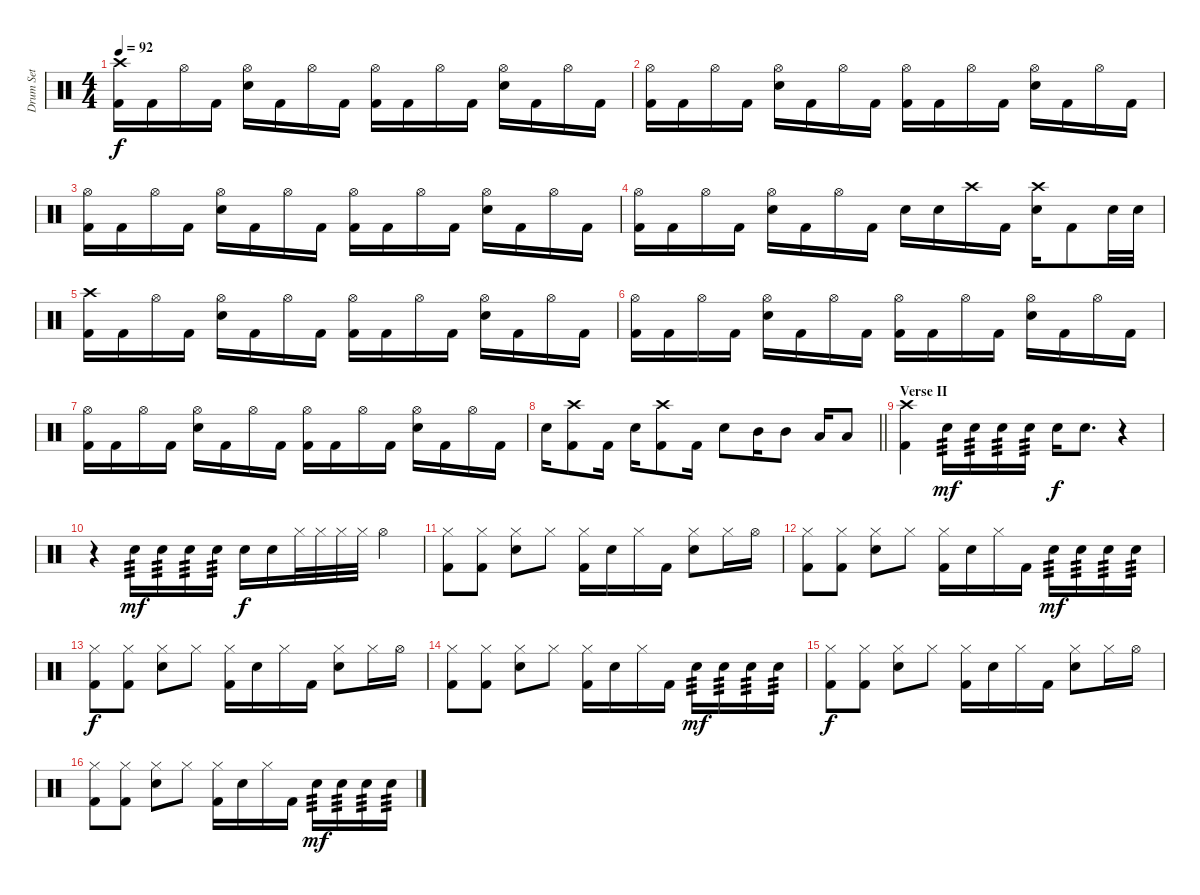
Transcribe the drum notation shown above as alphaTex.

\track ("Drum Set" "Drum Set") {instrument percussion}
\staff {score}
\articulation defaults
\ts (4 4)
\tempo 92
\clef neutral
\ks c
("Crash high (hit)" "Kick (hit) 2").16{dy f} "Kick (hit) 2".16 "Hi-Hat (open)".16 "Kick (hit) 2".16 ("Hi-Hat (open)" "Electric Snare (hit)").16 "Kick (hit) 2".16 "Hi-Hat (open)".16 "Kick (hit) 2".16 ("Hi-Hat (open)" "Kick (hit) 2").16 "Kick (hit) 2".16 "Hi-Hat (open)".16 "Kick (hit) 2".16 ("Hi-Hat (open)" "Electric Snare (hit)").16 "Kick (hit) 2".16 "Hi-Hat (open)".16 "Kick (hit) 2".16 |
("Hi-Hat (open)" "Kick (hit) 2").16 "Kick (hit) 2".16 "Hi-Hat (open)".16 "Kick (hit) 2".16 ("Hi-Hat (open)" "Electric Snare (hit)").16 "Kick (hit) 2".16 "Hi-Hat (open)".16 "Kick (hit) 2".16 ("Hi-Hat (open)" "Kick (hit) 2").16 "Kick (hit) 2".16 "Hi-Hat (open)".16 "Kick (hit) 2".16 ("Hi-Hat (open)" "Electric Snare (hit)").16 "Kick (hit) 2".16 "Hi-Hat (open)".16 "Kick (hit) 2".16 |
("Hi-Hat (open)" "Kick (hit) 2").16 "Kick (hit) 2".16 "Hi-Hat (open)".16 "Kick (hit) 2".16 ("Hi-Hat (open)" "Electric Snare (hit)").16 "Kick (hit) 2".16 "Hi-Hat (open)".16 "Kick (hit) 2".16 ("Hi-Hat (open)" "Kick (hit) 2").16 "Kick (hit) 2".16 "Hi-Hat (open)".16 "Kick (hit) 2".16 ("Hi-Hat (open)" "Electric Snare (hit)").16 "Kick (hit) 2".16 "Hi-Hat (open)".16 "Kick (hit) 2".16 |
("Hi-Hat (open)" "Kick (hit) 2").16 "Kick (hit) 2".16 "Hi-Hat (open)".16 "Kick (hit) 2".16 ("Hi-Hat (open)" "Electric Snare (hit)").16 "Kick (hit) 2".16 "Hi-Hat (open)".16 "Kick (hit) 2".16 "Electric Snare (hit)".16 "Electric Snare (hit)".16 "Crash high (hit)".16 "Kick (hit) 2".16 ("Electric Snare (hit)" "Crash high (hit)").16 "Kick (hit) 2".8 "Electric Snare (hit)".32 "Electric Snare (hit)".32 |
("Crash high (hit)" "Kick (hit) 2").16 "Kick (hit) 2".16 "Hi-Hat (open)".16 "Kick (hit) 2".16 ("Hi-Hat (open)" "Electric Snare (hit)").16 "Kick (hit) 2".16 "Hi-Hat (open)".16 "Kick (hit) 2".16 ("Hi-Hat (open)" "Kick (hit) 2").16 "Kick (hit) 2".16 "Hi-Hat (open)".16 "Kick (hit) 2".16 ("Hi-Hat (open)" "Electric Snare (hit)").16 "Kick (hit) 2".16 "Hi-Hat (open)".16 "Kick (hit) 2".16 |
("Hi-Hat (open)" "Kick (hit) 2").16 "Kick (hit) 2".16 "Hi-Hat (open)".16 "Kick (hit) 2".16 ("Hi-Hat (open)" "Electric Snare (hit)").16 "Kick (hit) 2".16 "Hi-Hat (open)".16 "Kick (hit) 2".16 ("Hi-Hat (open)" "Kick (hit) 2").16 "Kick (hit) 2".16 "Hi-Hat (open)".16 "Kick (hit) 2".16 ("Hi-Hat (open)" "Electric Snare (hit)").16 "Kick (hit) 2".16 "Hi-Hat (open)".16 "Kick (hit) 2".16 |
("Hi-Hat (open)" "Kick (hit) 2").16 "Kick (hit) 2".16 "Hi-Hat (open)".16 "Kick (hit) 2".16 ("Hi-Hat (open)" "Electric Snare (hit)").16 "Kick (hit) 2".16 "Hi-Hat (open)".16 "Kick (hit) 2".16 ("Hi-Hat (open)" "Kick (hit) 2").16 "Kick (hit) 2".16 "Hi-Hat (open)".16 "Kick (hit) 2".16 ("Hi-Hat (open)" "Electric Snare (hit)").16 "Kick (hit) 2".16 "Hi-Hat (open)".16 "Kick (hit) 2".16 |
\barLineRight lightlight "Electric Snare (hit)".16
("Crash high (hit)" "Kick (hit) 2").8 "Kick (hit) 2".16 "Electric Snare (hit)".16 ("Crash high (hit)" "Kick (hit) 2").8 "Kick (hit) 2".16 "Electric Snare (hit)".8 "Mid Tom (hit)".16 "Mid Tom (hit)".8 "Low Floor Tom (hit)".16 "Low Floor Tom (hit)".8 |
\section ("" "Verse II")
("Crash high (hit)" "Kick (hit) 2").4 "Electric Snare (hit)".16{tp 3 dy mf} "Electric Snare (hit)".16{tp 3} "Electric Snare (hit)".16{tp 3} "Electric Snare (hit)".16{tp 3} "Electric Snare (hit)".16{dy f} "Electric Snare (hit)".8{d} r.4 |
r.4 "Electric Snare (hit)".16{tp 3 dy mf} "Electric Snare (hit)".16{tp 3} "Electric Snare (hit)".16{tp 3} "Electric Snare (hit)".16{tp 3} "Electric Snare (hit)".16{dy f} "Electric Snare (hit)".16 "Hi-Hat (closed)".32 "Hi-Hat (closed)".32 "Hi-Hat (closed)".32 "Hi-Hat (closed)".32 "Hi-Hat (open)".4 |
("Hi-Hat (closed)" "Kick (hit) 2").8 ("Hi-Hat (closed)" "Kick (hit) 2").8 ("Hi-Hat (closed)" "Electric Snare (hit)").8 "Hi-Hat (closed)".8 ("Hi-Hat (closed)" "Kick (hit) 2").16 "Electric Snare (hit)".16 "Hi-Hat (closed)".16 "Kick (hit) 2".16 ("Hi-Hat (closed)" "Electric Snare (hit)").8 "Hi-Hat (closed)".16 "Hi-Hat (open)".16 |
("Hi-Hat (closed)" "Kick (hit) 2").8 ("Hi-Hat (closed)" "Kick (hit) 2").8 ("Hi-Hat (closed)" "Electric Snare (hit)").8 "Hi-Hat (closed)".8 ("Hi-Hat (closed)" "Kick (hit) 2").16 "Electric Snare (hit)".16 "Hi-Hat (closed)".16 "Kick (hit) 2".16 "Electric Snare (hit)".16{tp 3 dy mf} "Electric Snare (hit)".16{tp 3} "Electric Snare (hit)".16{tp 3} "Electric Snare (hit)".16{tp 3} |
("Hi-Hat (closed)" "Kick (hit) 2").8{dy f} ("Hi-Hat (closed)" "Kick (hit) 2").8 ("Hi-Hat (closed)" "Electric Snare (hit)").8 "Hi-Hat (closed)".8 ("Hi-Hat (closed)" "Kick (hit) 2").16 "Electric Snare (hit)".16 "Hi-Hat (closed)".16 "Kick (hit) 2".16 ("Hi-Hat (closed)" "Electric Snare (hit)").8 "Hi-Hat (closed)".16 "Hi-Hat (open)".16 |
("Hi-Hat (closed)" "Kick (hit) 2").8 ("Hi-Hat (closed)" "Kick (hit) 2").8 ("Hi-Hat (closed)" "Electric Snare (hit)").8 "Hi-Hat (closed)".8 ("Hi-Hat (closed)" "Kick (hit) 2").16 "Electric Snare (hit)".16 "Hi-Hat (closed)".16 "Kick (hit) 2".16 "Electric Snare (hit)".16{tp 3 dy mf} "Electric Snare (hit)".16{tp 3} "Electric Snare (hit)".16{tp 3} "Electric Snare (hit)".16{tp 3} |
("Hi-Hat (closed)" "Kick (hit) 2").8{dy f} ("Hi-Hat (closed)" "Kick (hit) 2").8 ("Hi-Hat (closed)" "Electric Snare (hit)").8 "Hi-Hat (closed)".8 ("Hi-Hat (closed)" "Kick (hit) 2").16 "Electric Snare (hit)".16 "Hi-Hat (closed)".16 "Kick (hit) 2".16 ("Hi-Hat (closed)" "Electric Snare (hit)").8 "Hi-Hat (closed)".16 "Hi-Hat (open)".16 |
("Hi-Hat (closed)" "Kick (hit) 2").8 ("Hi-Hat (closed)" "Kick (hit) 2").8 ("Hi-Hat (closed)" "Electric Snare (hit)").8 "Hi-Hat (closed)".8 ("Hi-Hat (closed)" "Kick (hit) 2").16 "Electric Snare (hit)".16 "Hi-Hat (closed)".16 "Kick (hit) 2".16 "Electric Snare (hit)".16{tp 3 dy mf} "Electric Snare (hit)".16{tp 3} "Electric Snare (hit)".16{tp 3} "Electric Snare (hit)".16{tp 3}
